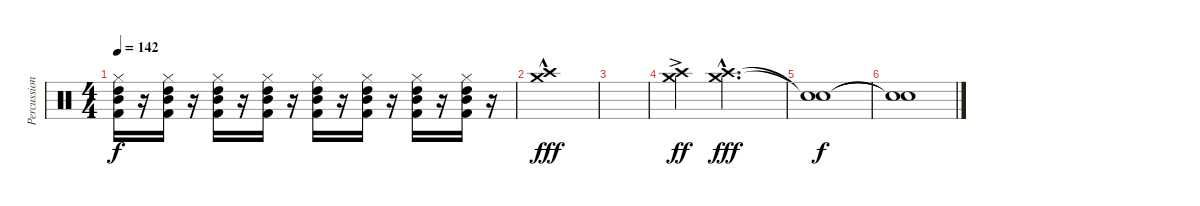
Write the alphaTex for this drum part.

\track ("Percussion" "Percussion") {instrument percussion}
\staff {score}
\articulation defaults
\ts (4 4)
\tempo 142
\clef neutral
\ks c
("Hi-Hat (closed)" "High Tom (hit)" "Mid Tom (hit)" "Kick (hit) 2").16{dy f} r.16 ("Hi-Hat (closed)" "High Tom (hit)" "Mid Tom (hit)" "Kick (hit) 2").16 r.16 ("Hi-Hat (closed)" "High Tom (hit)" "Mid Tom (hit)" "Kick (hit) 2").16 r.16 ("Hi-Hat (closed)" "High Tom (hit)" "Mid Tom (hit)" "Kick (hit) 2").16 r.16 ("Hi-Hat (closed)" "High Tom (hit)" "Mid Tom (hit)" "Kick (hit) 2").16 r.16 ("Hi-Hat (closed)" "High Tom (hit)" "Mid Tom (hit)" "Kick (hit) 2").16 r.16 ("Hi-Hat (closed)" "High Tom (hit)" "Mid Tom (hit)" "Kick (hit) 2").16 r.16 ("Hi-Hat (closed)" "High Tom (hit)" "Mid Tom (hit)" "Kick (hit) 2").16 r.16 |
("Crash high (hit)"{hac} "Crash medium (hit)"{hac}).1{dy fff} |
|
("Crash high (hit)"{ac} "Crash medium (hit)"{ac}).4{dy ff} ("Crash high (hit)"{hac} "Crash medium (hit)"{hac}).2{d dy fff} |
("Snare (hit)"{t} "Snare (hit)"{t}).1{dy f} |
("Snare (hit)"{t} "Snare (hit)"{t}).1
